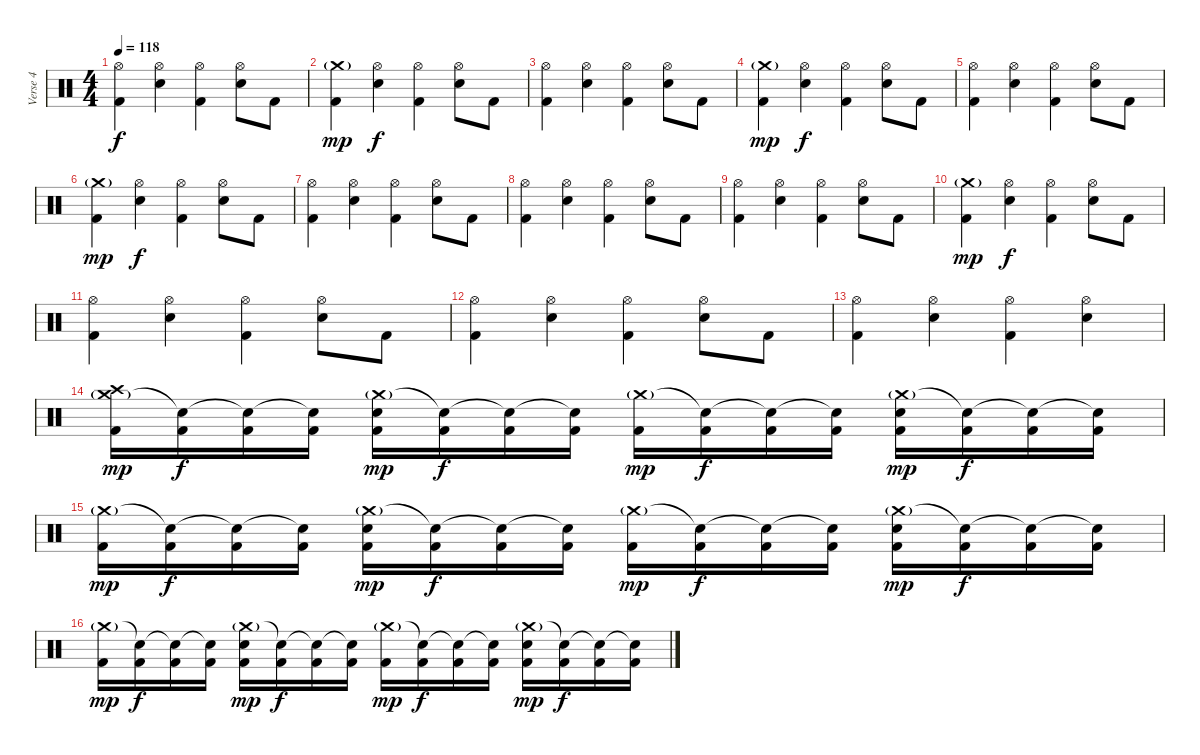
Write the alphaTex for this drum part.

\track ("Verse 4" "Verse 4") {instrument percussion}
\staff {score}
\articulation defaults
\ts (4 4)
\tempo 118
\clef neutral
\ks c
("Hi-Hat (open)" "Kick (hit) 2").4{dy f} ("Hi-Hat (open)" "Electric Snare (hit)").4 ("Hi-Hat (open)" "Kick (hit) 2").4 ("Hi-Hat (open)" "Electric Snare (hit)").8 "Kick (hit) 2".8 |
("Crash medium (hit)"{g} "Kick (hit) 2").4{dy mp} ("Hi-Hat (open)" "Electric Snare (hit)").4{dy f} ("Hi-Hat (open)" "Kick (hit) 2").4 ("Hi-Hat (open)" "Electric Snare (hit)").8 "Kick (hit) 2".8 |
("Hi-Hat (open)" "Kick (hit) 2").4 ("Hi-Hat (open)" "Electric Snare (hit)").4 ("Hi-Hat (open)" "Kick (hit) 2").4 ("Hi-Hat (open)" "Electric Snare (hit)").8 "Kick (hit) 2".8 |
("Crash medium (hit)"{g} "Kick (hit) 2").4{dy mp} ("Hi-Hat (open)" "Electric Snare (hit)").4{dy f} ("Hi-Hat (open)" "Kick (hit) 2").4 ("Hi-Hat (open)" "Electric Snare (hit)").8 "Kick (hit) 2".8 |
("Hi-Hat (open)" "Kick (hit) 2").4 ("Hi-Hat (open)" "Electric Snare (hit)").4 ("Hi-Hat (open)" "Kick (hit) 2").4 ("Hi-Hat (open)" "Electric Snare (hit)").8 "Kick (hit) 2".8 |
("Crash medium (hit)"{g} "Kick (hit) 2").4{dy mp} ("Hi-Hat (open)" "Electric Snare (hit)").4{dy f} ("Hi-Hat (open)" "Kick (hit) 2").4 ("Hi-Hat (open)" "Electric Snare (hit)").8 "Kick (hit) 2".8 |
("Hi-Hat (open)" "Kick (hit) 2").4 ("Hi-Hat (open)" "Electric Snare (hit)").4 ("Hi-Hat (open)" "Kick (hit) 2").4 ("Hi-Hat (open)" "Electric Snare (hit)").8 "Kick (hit) 2".8 |
("Hi-Hat (open)" "Kick (hit) 2").4 ("Hi-Hat (open)" "Electric Snare (hit)").4 ("Hi-Hat (open)" "Kick (hit) 2").4 ("Hi-Hat (open)" "Electric Snare (hit)").8 "Kick (hit) 2".8 |
("Hi-Hat (open)" "Kick (hit) 2").4 ("Hi-Hat (open)" "Electric Snare (hit)").4 ("Hi-Hat (open)" "Kick (hit) 2").4 ("Hi-Hat (open)" "Electric Snare (hit)").8 "Kick (hit) 2".8 |
("Crash medium (hit)"{g} "Kick (hit) 2").4{dy mp} ("Hi-Hat (open)" "Electric Snare (hit)").4{dy f} ("Hi-Hat (open)" "Kick (hit) 2").4 ("Hi-Hat (open)" "Electric Snare (hit)").8 "Kick (hit) 2".8 |
("Hi-Hat (open)" "Kick (hit) 2").4 ("Hi-Hat (open)" "Electric Snare (hit)").4 ("Hi-Hat (open)" "Kick (hit) 2").4 ("Hi-Hat (open)" "Electric Snare (hit)").8 "Kick (hit) 2".8 |
("Hi-Hat (open)" "Kick (hit) 2").4 ("Hi-Hat (open)" "Electric Snare (hit)").4 ("Hi-Hat (open)" "Kick (hit) 2").4 ("Hi-Hat (open)" "Electric Snare (hit)").8 "Kick (hit) 2".8 |
("Hi-Hat (open)" "Kick (hit) 2").4 ("Hi-Hat (open)" "Electric Snare (hit)").4 ("Hi-Hat (open)" "Kick (hit) 2").4 ("Hi-Hat (open)" "Electric Snare (hit)").4 |
("Crash medium (hit)"{g} "Crash high (hit)" "Kick (hit) 2").16{dy mp} ("Snare (hit)"{t} "Kick (hit) 2").16{dy f} ("Snare (hit)"{t} "Kick (hit) 2").16 ("Snare (hit)"{t} "Kick (hit) 2").16 ("Crash medium (hit)"{g} "Electric Snare (hit)" "Kick (hit) 2").16{dy mp} ("Snare (hit)"{t} "Kick (hit) 2").16{dy f} ("Snare (hit)"{t} "Kick (hit) 2").16 ("Snare (hit)"{t} "Kick (hit) 2").16 ("Crash medium (hit)"{g} "Kick (hit) 2").16{dy mp} ("Snare (hit)"{t} "Kick (hit) 2").16{dy f} ("Snare (hit)"{t} "Kick (hit) 2").16 ("Snare (hit)"{t} "Kick (hit) 2").16 ("Crash medium (hit)"{g} "Electric Snare (hit)" "Kick (hit) 2").16{dy mp} ("Snare (hit)"{t} "Kick (hit) 2").16{dy f} ("Snare (hit)"{t} "Kick (hit) 2").16 ("Snare (hit)"{t} "Kick (hit) 2").16 |
("Crash medium (hit)"{g} "Kick (hit) 2").16{dy mp} ("Snare (hit)"{t} "Kick (hit) 2").16{dy f} ("Snare (hit)"{t} "Kick (hit) 2").16 ("Snare (hit)"{t} "Kick (hit) 2").16 ("Crash medium (hit)"{g} "Electric Snare (hit)" "Kick (hit) 2").16{dy mp} ("Snare (hit)"{t} "Kick (hit) 2").16{dy f} ("Snare (hit)"{t} "Kick (hit) 2").16 ("Snare (hit)"{t} "Kick (hit) 2").16 ("Crash medium (hit)"{g} "Kick (hit) 2").16{dy mp} ("Snare (hit)"{t} "Kick (hit) 2").16{dy f} ("Snare (hit)"{t} "Kick (hit) 2").16 ("Snare (hit)"{t} "Kick (hit) 2").16 ("Crash medium (hit)"{g} "Electric Snare (hit)" "Kick (hit) 2").16{dy mp} ("Snare (hit)"{t} "Kick (hit) 2").16{dy f} ("Snare (hit)"{t} "Kick (hit) 2").16 ("Snare (hit)"{t} "Kick (hit) 2").16 |
("Crash medium (hit)"{g} "Kick (hit) 2").16{dy mp} ("Snare (hit)"{t} "Kick (hit) 2").16{dy f} ("Snare (hit)"{t} "Kick (hit) 2").16 ("Snare (hit)"{t} "Kick (hit) 2").16 ("Crash medium (hit)"{g} "Electric Snare (hit)" "Kick (hit) 2").16{dy mp} ("Snare (hit)"{t} "Kick (hit) 2").16{dy f} ("Snare (hit)"{t} "Kick (hit) 2").16 ("Snare (hit)"{t} "Kick (hit) 2").16 ("Crash medium (hit)"{g} "Kick (hit) 2").16{dy mp} ("Snare (hit)"{t} "Kick (hit) 2").16{dy f} ("Snare (hit)"{t} "Kick (hit) 2").16 ("Snare (hit)"{t} "Kick (hit) 2").16 ("Crash medium (hit)"{g} "Electric Snare (hit)" "Kick (hit) 2").16{dy mp} ("Snare (hit)"{t} "Kick (hit) 2").16{dy f} ("Snare (hit)"{t} "Kick (hit) 2").16 ("Snare (hit)"{t} "Kick (hit) 2").16
